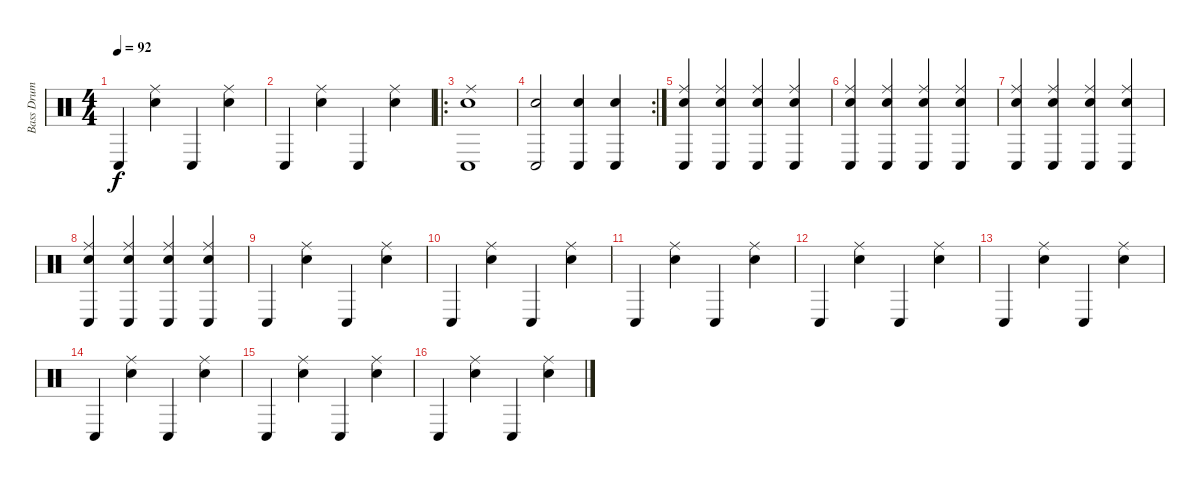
\track ("Bass Drum" "Bass Drum") {instrument percussion}
\staff {score}
\articulation defaults
\ts (4 4)
\tempo 92
\clef neutral
\ks c "Conga low (hit)".4{dy f}
("Snare (hit) 2" "Ride (middle)").4 "Conga low (hit)".4 ("Snare (hit) 2" "Ride (middle)").4 |
"Conga low (hit)".4 ("Snare (hit) 2" "Ride (middle)").4 "Conga low (hit)".4 ("Snare (hit) 2" "Ride (middle)").4 |
\ro
("Conga low (hit)" "Ride (middle)" "Snare (hit) 2").1 |
\rc 2
("Conga low (hit)" "Snare (hit) 2").2 ("Conga low (hit)" "Snare (hit) 2").4 ("Conga low (hit)" "Snare (hit) 2").4 |
("Conga low (hit)" "Snare (hit) 2" "Ride (middle)").4 ("Snare (hit) 2" "Ride (middle)" "Conga low (hit)").4 ("Conga low (hit)" "Snare (hit) 2" "Ride (middle)").4 ("Snare (hit) 2" "Ride (middle)" "Conga low (hit)").4 |
("Conga low (hit)" "Snare (hit) 2" "Ride (middle)").4 ("Snare (hit) 2" "Ride (middle)" "Conga low (hit)").4 ("Conga low (hit)" "Snare (hit) 2" "Ride (middle)").4 ("Snare (hit) 2" "Ride (middle)" "Conga low (hit)").4 |
("Conga low (hit)" "Snare (hit) 2" "Ride (middle)").4 ("Snare (hit) 2" "Ride (middle)" "Conga low (hit)").4 ("Conga low (hit)" "Snare (hit) 2" "Ride (middle)").4 ("Snare (hit) 2" "Ride (middle)" "Conga low (hit)").4 |
("Conga low (hit)" "Snare (hit) 2" "Ride (middle)").4 ("Snare (hit) 2" "Ride (middle)" "Conga low (hit)").4 ("Conga low (hit)" "Snare (hit) 2" "Ride (middle)").4 ("Snare (hit) 2" "Ride (middle)" "Conga low (hit)").4 |
"Conga low (hit)".4 ("Snare (hit) 2" "Ride (middle)").4 "Conga low (hit)".4 ("Snare (hit) 2" "Ride (middle)").4 |
"Conga low (hit)".4 ("Snare (hit) 2" "Ride (middle)").4 "Conga low (hit)".4 ("Snare (hit) 2" "Ride (middle)").4 |
"Conga low (hit)".4 ("Snare (hit) 2" "Ride (middle)").4 "Conga low (hit)".4 ("Snare (hit) 2" "Ride (middle)").4 |
"Conga low (hit)".4 ("Snare (hit) 2" "Ride (middle)").4 "Conga low (hit)".4 ("Snare (hit) 2" "Ride (middle)").4 |
"Conga low (hit)".4 ("Snare (hit) 2" "Ride (middle)").4 "Conga low (hit)".4 ("Snare (hit) 2" "Ride (middle)").4 |
"Conga low (hit)".4 ("Snare (hit) 2" "Ride (middle)").4 "Conga low (hit)".4 ("Snare (hit) 2" "Ride (middle)").4 |
"Conga low (hit)".4 ("Snare (hit) 2" "Ride (middle)").4 "Conga low (hit)".4 ("Snare (hit) 2" "Ride (middle)").4 |
"Conga low (hit)".4 ("Snare (hit) 2" "Ride (middle)").4 "Conga low (hit)".4 ("Snare (hit) 2" "Ride (middle)").4
